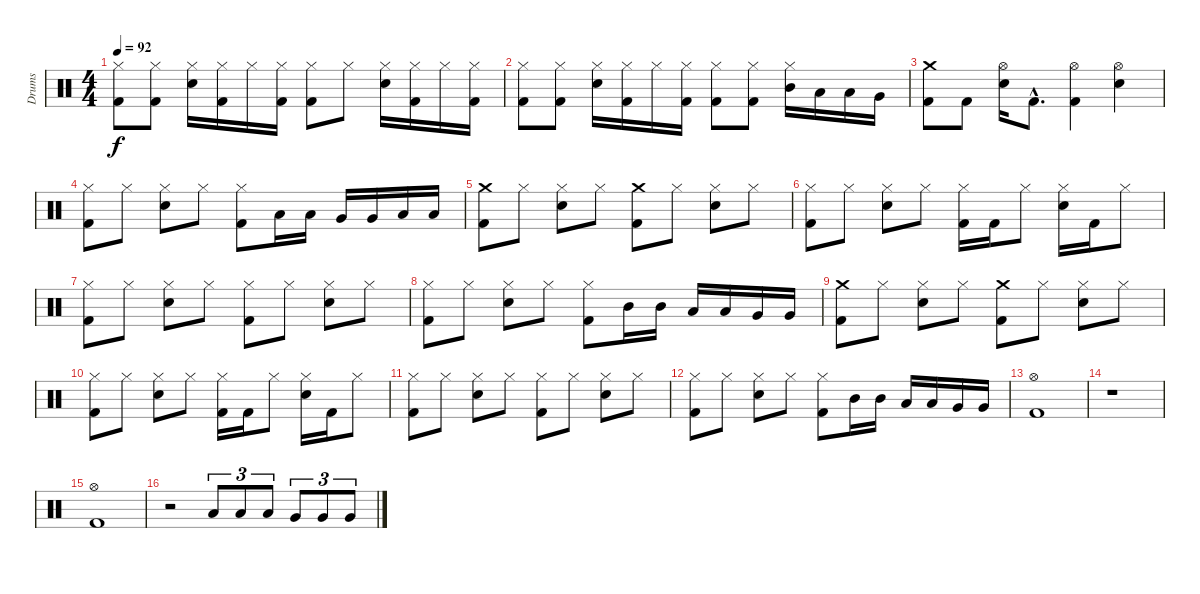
\track ("Drums" "Drums") {instrument percussion}
\staff {score}
\articulation defaults
\ts (4 4)
\tempo 92
\clef neutral
\ks c
("Hi-Hat (closed)" "Kick (hit) 2").8{dy f} ("Hi-Hat (closed)" "Kick (hit) 2").8 ("Hi-Hat (closed)" "Electric Snare (hit)").16 ("Hi-Hat (closed)" "Kick (hit) 2").16 "Hi-Hat (closed)".16 ("Hi-Hat (closed)" "Kick (hit) 2").16 ("Hi-Hat (closed)" "Kick (hit) 2").8 "Hi-Hat (closed)".8 ("Hi-Hat (closed)" "Electric Snare (hit)").16 ("Hi-Hat (closed)" "Kick (hit) 2").16 "Hi-Hat (closed)".16 ("Hi-Hat (closed)" "Kick (hit) 2").16 |
("Hi-Hat (closed)" "Kick (hit) 2").8 ("Hi-Hat (closed)" "Kick (hit) 2").8 ("Hi-Hat (closed)" "Electric Snare (hit)").16 ("Hi-Hat (closed)" "Kick (hit) 2").16 "Hi-Hat (closed)".16 ("Hi-Hat (closed)" "Kick (hit) 2").16 ("Hi-Hat (closed)" "Kick (hit) 2").8 ("Hi-Hat (closed)" "Kick (hit) 2").8 ("Hi-Hat (closed)" "Mid Tom (hit)").16 "Low Tom (hit)".16 "Low Tom (hit)".16 "Very Low Tom (hit)".16 |
("Crash medium (hit)" "Kick (hit) 2").8 "Kick (hit) 2".8 ("Hi-Hat (open)" "Electric Snare (hit)").16 "Kick (hit) 2"{hac}.8{d} ("Hi-Hat (open)" "Kick (hit) 2").4 ("Hi-Hat (open)" "Electric Snare (hit)").4 |
("Hi-Hat (closed)" "Kick (hit) 2").8 "Hi-Hat (closed)".8 ("Hi-Hat (closed)" "Electric Snare (hit)").8 "Hi-Hat (closed)".8 ("Hi-Hat (closed)" "Kick (hit) 2").8 "Low Tom (hit)".16 "Low Tom (hit)".16 "Very Low Tom (hit)".16 "Very Low Tom (hit)".16 "Low Floor Tom (hit)".16 "Low Floor Tom (hit)".16 |
("Crash medium (hit)" "Kick (hit) 2").8 "Hi-Hat (closed)".8 ("Hi-Hat (closed)" "Electric Snare (hit)").8 "Hi-Hat (closed)".8 ("Crash medium (hit)" "Kick (hit) 2").8 "Hi-Hat (closed)".8 ("Hi-Hat (closed)" "Electric Snare (hit)").8 "Hi-Hat (closed)".8 |
("Hi-Hat (closed)" "Kick (hit) 2").8 "Hi-Hat (closed)".8 ("Hi-Hat (closed)" "Electric Snare (hit)").8 "Hi-Hat (closed)".8 ("Hi-Hat (closed)" "Kick (hit) 2").16 "Kick (hit) 2".16 "Hi-Hat (closed)".8 ("Hi-Hat (closed)" "Electric Snare (hit)").16 "Kick (hit) 2".16 "Hi-Hat (closed)".8 |
("Hi-Hat (closed)" "Kick (hit) 2").8 "Hi-Hat (closed)".8 ("Hi-Hat (closed)" "Electric Snare (hit)").8 "Hi-Hat (closed)".8 ("Hi-Hat (closed)" "Kick (hit) 2").8 "Hi-Hat (closed)".8 ("Hi-Hat (closed)" "Electric Snare (hit)").8 "Hi-Hat (closed)".8 |
("Hi-Hat (closed)" "Kick (hit) 2").8 "Hi-Hat (closed)".8 ("Hi-Hat (closed)" "Electric Snare (hit)").8 "Hi-Hat (closed)".8 ("Hi-Hat (closed)" "Kick (hit) 2").8 "Mid Tom (hit)".16 "Mid Tom (hit)".16 "Low Tom (hit)".16 "Low Tom (hit)".16 "Very Low Tom (hit)".16 "Very Low Tom (hit)".16 |
("Crash medium (hit)" "Kick (hit) 2").8 "Hi-Hat (closed)".8 ("Hi-Hat (closed)" "Electric Snare (hit)").8 "Hi-Hat (closed)".8 ("Crash medium (hit)" "Kick (hit) 2").8 "Hi-Hat (closed)".8 ("Hi-Hat (closed)" "Electric Snare (hit)").8 "Hi-Hat (closed)".8 |
("Hi-Hat (closed)" "Kick (hit) 2").8 "Hi-Hat (closed)".8 ("Hi-Hat (closed)" "Electric Snare (hit)").8 "Hi-Hat (closed)".8 ("Hi-Hat (closed)" "Kick (hit) 2").16 "Kick (hit) 2".16 "Hi-Hat (closed)".8 ("Hi-Hat (closed)" "Electric Snare (hit)").16 "Kick (hit) 2".16 "Hi-Hat (closed)".8 |
("Hi-Hat (closed)" "Kick (hit) 2").8 "Hi-Hat (closed)".8 ("Hi-Hat (closed)" "Electric Snare (hit)").8 "Hi-Hat (closed)".8 ("Hi-Hat (closed)" "Kick (hit) 2").8 "Hi-Hat (closed)".8 ("Hi-Hat (closed)" "Electric Snare (hit)").8 "Hi-Hat (closed)".8 |
("Hi-Hat (closed)" "Kick (hit) 2").8 "Hi-Hat (closed)".8 ("Hi-Hat (closed)" "Electric Snare (hit)").8 "Hi-Hat (closed)".8 ("Hi-Hat (closed)" "Kick (hit) 2").8 "Mid Tom (hit)".16 "Mid Tom (hit)".16 "Low Tom (hit)".16 "Low Tom (hit)".16 "Very Low Tom (hit)".16 "Very Low Tom (hit)".16 |
("Hi-Hat (open)" "Kick (hit) 2").1 |
r.1 |
("Hi-Hat (open)" "Kick (hit) 2").1 |
r.2 "Low Tom (hit)".8{tu (3 2)} "Low Tom (hit)".8{tu (3 2)} "Low Tom (hit)".8{tu (3 2)} "Very Low Tom (hit)".8{tu (3 2)} "Very Low Tom (hit)".8{tu (3 2)} "Very Low Tom (hit)".8{tu (3 2)}
